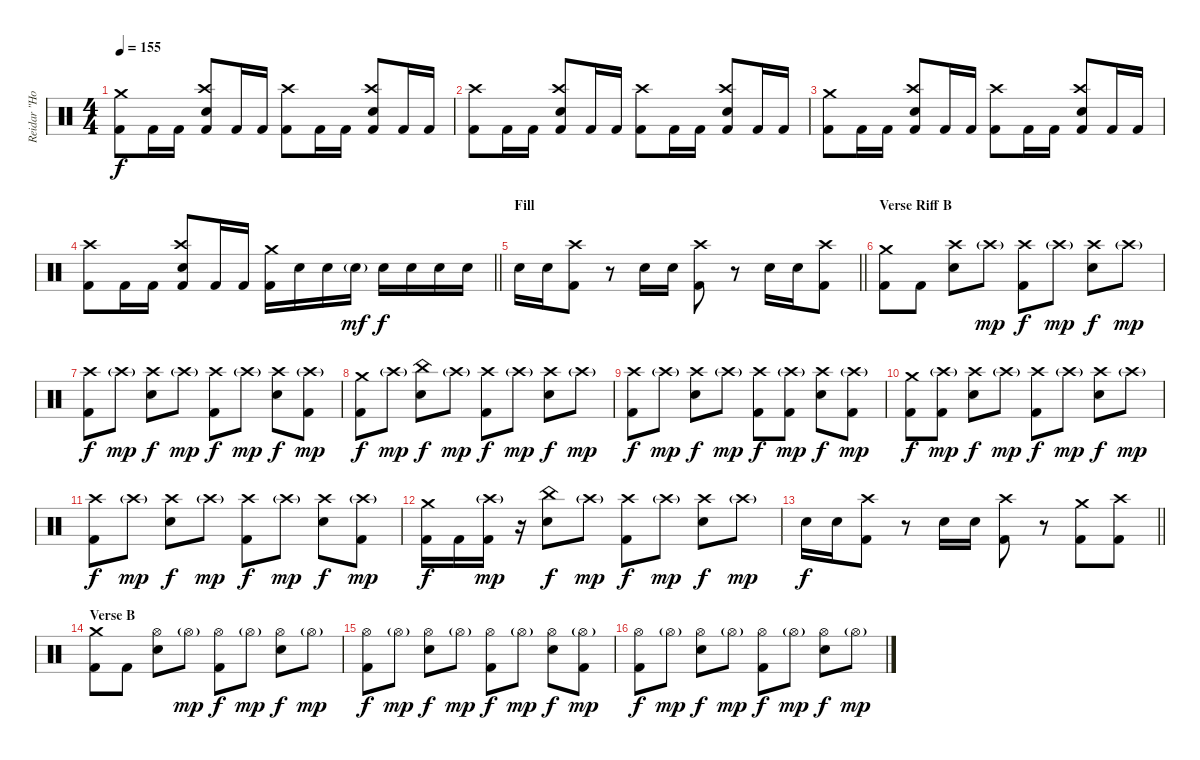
\track ("Reidar \"Horgh\" Horghagen " "Reidar \"Ho") {instrument percussion}
\staff {score}
\articulation defaults
\ts (4 4)
\tempo 155
\clef neutral
\ks c
("Crash medium (hit)" "Kick (hit) 2").8{dy f} "Kick (hit) 2".16 "Kick (hit) 2".16 ("Crash high (hit)" "Snare (hit) 2" "Kick (hit) 2").8 "Kick (hit) 2".16 "Kick (hit) 2".16 ("Crash high (hit)" "Kick (hit) 2").8 "Kick (hit) 2".16 "Kick (hit) 2".16 ("Crash high (hit)" "Snare (hit) 2" "Kick (hit) 2").8 "Kick (hit) 2".16 "Kick (hit) 2".16 |
("Crash high (hit)" "Kick (hit) 2").8 "Kick (hit) 2".16 "Kick (hit) 2".16 ("Crash high (hit)" "Snare (hit) 2" "Kick (hit) 2").8 "Kick (hit) 2".16 "Kick (hit) 2".16 ("Crash high (hit)" "Kick (hit) 2").8 "Kick (hit) 2".16 "Kick (hit) 2".16 ("Crash high (hit)" "Snare (hit) 2" "Kick (hit) 2").8 "Kick (hit) 2".16 "Kick (hit) 2".16 |
("Crash medium (hit)" "Kick (hit) 2").8 "Kick (hit) 2".16 "Kick (hit) 2".16 ("Crash high (hit)" "Snare (hit) 2" "Kick (hit) 2").8 "Kick (hit) 2".16 "Kick (hit) 2".16 ("Crash high (hit)" "Kick (hit) 2").8 "Kick (hit) 2".16 "Kick (hit) 2".16 ("Crash high (hit)" "Snare (hit) 2" "Kick (hit) 2").8 "Kick (hit) 2".16 "Kick (hit) 2".16 |
\barLineRight lightlight
("Crash high (hit)" "Kick (hit) 2").8 "Kick (hit) 2".16 "Kick (hit) 2".16 ("Crash high (hit)" "Snare (hit) 2" "Kick (hit) 2").8 "Kick (hit) 2".16 "Kick (hit) 2".16 ("Crash medium (hit)" "Kick (hit) 2").16 "Snare (hit) 2".16 "Snare (hit) 2".16 "Snare (hit) 2"{g}.16{dy mf} "Snare (hit) 2".16{dy f} "Snare (hit) 2".16 "Snare (hit) 2".16 "Snare (hit) 2".16 |
\section ("" "Fill")
\barLineRight lightlight "Snare (hit) 2".16 "Snare (hit) 2".16
("Crash high (hit)" "Kick (hit) 2").8 r.8 "Snare (hit) 2".16 "Snare (hit) 2".16 ("Crash high (hit)" "Kick (hit) 2").8 r.8 "Snare (hit) 2".16 "Snare (hit) 2".16 ("Crash high (hit)" "Kick (hit) 2").8 |
\section ("" "Verse Riff B")
("Crash medium (hit)" "Kick (hit) 2").8 "Kick (hit) 2".8 ("Crash high (hit)" "Snare (hit) 2").8 "Crash high (hit)"{g}.8{dy mp} ("Crash high (hit)" "Kick (hit) 2").8{dy f} "Crash high (hit)"{g}.8{dy mp} ("Crash high (hit)" "Snare (hit) 2").8{dy f} "Crash high (hit)"{g}.8{dy mp} |
("Crash high (hit)" "Kick (hit) 2").8{dy f} "Crash high (hit)"{g}.8{dy mp} ("Crash high (hit)" "Snare (hit) 2").8{dy f} "Crash high (hit)"{g}.8{dy mp} ("Crash high (hit)" "Kick (hit) 2").8{dy f} "Crash high (hit)"{g}.8{dy mp} ("Crash high (hit)" "Snare (hit) 2").8{dy f} ("Crash high (hit)"{g} "Kick (hit) 2").8{dy mp} |
("Crash medium (hit)" "Kick (hit) 2").8{dy f} "Crash high (hit)"{g}.8{dy mp} ("China (hit)" "Snare (hit) 2").8{dy f} "Crash high (hit)"{g}.8{dy mp} ("Crash high (hit)" "Kick (hit) 2").8{dy f} "Crash high (hit)"{g}.8{dy mp} ("Crash high (hit)" "Snare (hit) 2").8{dy f} "Crash high (hit)"{g}.8{dy mp} |
("Crash high (hit)" "Kick (hit) 2").8{dy f} "Crash high (hit)"{g}.8{dy mp} ("Crash high (hit)" "Snare (hit) 2").8{dy f} "Crash high (hit)"{g}.8{dy mp} ("Crash high (hit)" "Kick (hit) 2").8{dy f} ("Crash high (hit)"{g} "Kick (hit) 2").8{dy mp} ("Crash high (hit)" "Snare (hit) 2").8{dy f} ("Crash high (hit)"{g} "Kick (hit) 2").8{dy mp} |
("Crash medium (hit)" "Kick (hit) 2").8{dy f} ("Crash high (hit)"{g} "Kick (hit) 2").8{dy mp} ("Crash high (hit)" "Snare (hit) 2").8{dy f} "Crash high (hit)"{g}.8{dy mp} ("Crash high (hit)" "Kick (hit) 2").8{dy f} "Crash high (hit)"{g}.8{dy mp} ("Crash high (hit)" "Snare (hit) 2").8{dy f} "Crash high (hit)"{g}.8{dy mp} |
("Crash high (hit)" "Kick (hit) 2").8{dy f} "Crash high (hit)"{g}.8{dy mp} ("Crash high (hit)" "Snare (hit) 2").8{dy f} "Crash high (hit)"{g}.8{dy mp} ("Crash high (hit)" "Kick (hit) 2").8{dy f} "Crash high (hit)"{g}.8{dy mp} ("Crash high (hit)" "Snare (hit) 2").8{dy f} ("Crash high (hit)"{g} "Kick (hit) 2").8{dy mp} |
("Crash medium (hit)" "Kick (hit) 2").16{dy f} "Kick (hit) 2".16 ("Crash high (hit)"{g} "Kick (hit) 2").16{dy mp} r.16 ("China (hit)" "Snare (hit) 2").8{dy f} "Crash high (hit)"{g}.8{dy mp} ("Crash high (hit)" "Kick (hit) 2").8{dy f} "Crash high (hit)"{g}.8{dy mp} ("Crash high (hit)" "Snare (hit) 2").8{dy f} "Crash high (hit)"{g}.8{dy mp} |
\barLineRight lightlight "Snare (hit) 2".16{dy f} "Snare (hit) 2".16
("Crash high (hit)" "Kick (hit) 2").8 r.8 "Snare (hit) 2".16 "Snare (hit) 2".16 ("Crash high (hit)" "Kick (hit) 2").8 r.8 ("Crash medium (hit)" "Kick (hit) 2").8 ("Crash high (hit)" "Kick (hit) 2").8 |
\section ("" "Verse B")
("Crash medium (hit)" "Kick (hit) 2").8 "Kick (hit) 2".8 ("Hi-Hat (open)" "Snare (hit) 2").8 "Hi-Hat (open)"{g}.8{dy mp} ("Hi-Hat (open)" "Kick (hit) 2").8{dy f} "Hi-Hat (open)"{g}.8{dy mp} ("Hi-Hat (open)" "Snare (hit) 2").8{dy f} "Hi-Hat (open)"{g}.8{dy mp} |
("Hi-Hat (open)" "Kick (hit) 2").8{dy f} "Hi-Hat (open)"{g}.8{dy mp} ("Hi-Hat (open)" "Snare (hit) 2").8{dy f} "Hi-Hat (open)"{g}.8{dy mp} ("Hi-Hat (open)" "Kick (hit) 2").8{dy f} "Hi-Hat (open)"{g}.8{dy mp} ("Hi-Hat (open)" "Snare (hit) 2").8{dy f} ("Hi-Hat (open)"{g} "Kick (hit) 2").8{dy mp} |
("Hi-Hat (open)" "Kick (hit) 2").8{dy f} "Hi-Hat (open)"{g}.8{dy mp} ("Hi-Hat (open)" "Snare (hit) 2").8{dy f} "Hi-Hat (open)"{g}.8{dy mp} ("Hi-Hat (open)" "Kick (hit) 2").8{dy f} "Hi-Hat (open)"{g}.8{dy mp} ("Hi-Hat (open)" "Snare (hit) 2").8{dy f} "Hi-Hat (open)"{g}.8{dy mp}
